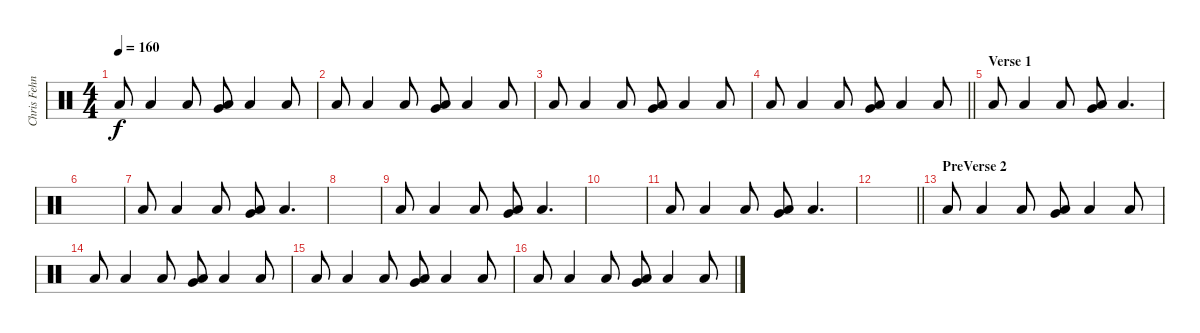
\track ("Chris Fehn" "Chris Fehn") {instrument percussion}
\staff {score}
\articulation defaults
\ts (4 4)
\tempo 160
\clef neutral
\ks c "Low Floor Tom (hit)".8{dy f} "Low Floor Tom (hit)".4 "Low Floor Tom (hit)".8
("Very Low Tom (hit)" "Low Floor Tom (hit)").8 "Low Floor Tom (hit)".4 "Low Floor Tom (hit)".8 |
"Low Floor Tom (hit)".8 "Low Floor Tom (hit)".4 "Low Floor Tom (hit)".8 ("Very Low Tom (hit)" "Low Floor Tom (hit)").8 "Low Floor Tom (hit)".4 "Low Floor Tom (hit)".8 |
"Low Floor Tom (hit)".8 "Low Floor Tom (hit)".4 "Low Floor Tom (hit)".8 ("Very Low Tom (hit)" "Low Floor Tom (hit)").8 "Low Floor Tom (hit)".4 "Low Floor Tom (hit)".8 |
\barLineRight lightlight "Low Floor Tom (hit)".8 "Low Floor Tom (hit)".4 "Low Floor Tom (hit)".8
("Very Low Tom (hit)" "Low Floor Tom (hit)").8 "Low Floor Tom (hit)".4 "Low Floor Tom (hit)".8 |
\section ("" "Verse 1")
"Low Floor Tom (hit)".8 "Low Floor Tom (hit)".4 "Low Floor Tom (hit)".8 ("Very Low Tom (hit)" "Low Floor Tom (hit)").8 "Low Floor Tom (hit)".4{d} |
|
"Low Floor Tom (hit)".8 "Low Floor Tom (hit)".4 "Low Floor Tom (hit)".8 ("Very Low Tom (hit)" "Low Floor Tom (hit)").8 "Low Floor Tom (hit)".4{d} |
|
"Low Floor Tom (hit)".8 "Low Floor Tom (hit)".4 "Low Floor Tom (hit)".8 ("Very Low Tom (hit)" "Low Floor Tom (hit)").8 "Low Floor Tom (hit)".4{d} |
|
"Low Floor Tom (hit)".8 "Low Floor Tom (hit)".4 "Low Floor Tom (hit)".8 ("Very Low Tom (hit)" "Low Floor Tom (hit)").8 "Low Floor Tom (hit)".4{d} |
\barLineRight lightlight
|
\section ("" "PreVerse 2")
"Low Floor Tom (hit)".8 "Low Floor Tom (hit)".4 "Low Floor Tom (hit)".8 ("Very Low Tom (hit)" "Low Floor Tom (hit)").8 "Low Floor Tom (hit)".4 "Low Floor Tom (hit)".8 |
"Low Floor Tom (hit)".8 "Low Floor Tom (hit)".4 "Low Floor Tom (hit)".8 ("Very Low Tom (hit)" "Low Floor Tom (hit)").8 "Low Floor Tom (hit)".4 "Low Floor Tom (hit)".8 |
"Low Floor Tom (hit)".8 "Low Floor Tom (hit)".4 "Low Floor Tom (hit)".8 ("Very Low Tom (hit)" "Low Floor Tom (hit)").8 "Low Floor Tom (hit)".4 "Low Floor Tom (hit)".8 |
"Low Floor Tom (hit)".8 "Low Floor Tom (hit)".4 "Low Floor Tom (hit)".8 ("Very Low Tom (hit)" "Low Floor Tom (hit)").8 "Low Floor Tom (hit)".4 "Low Floor Tom (hit)".8
